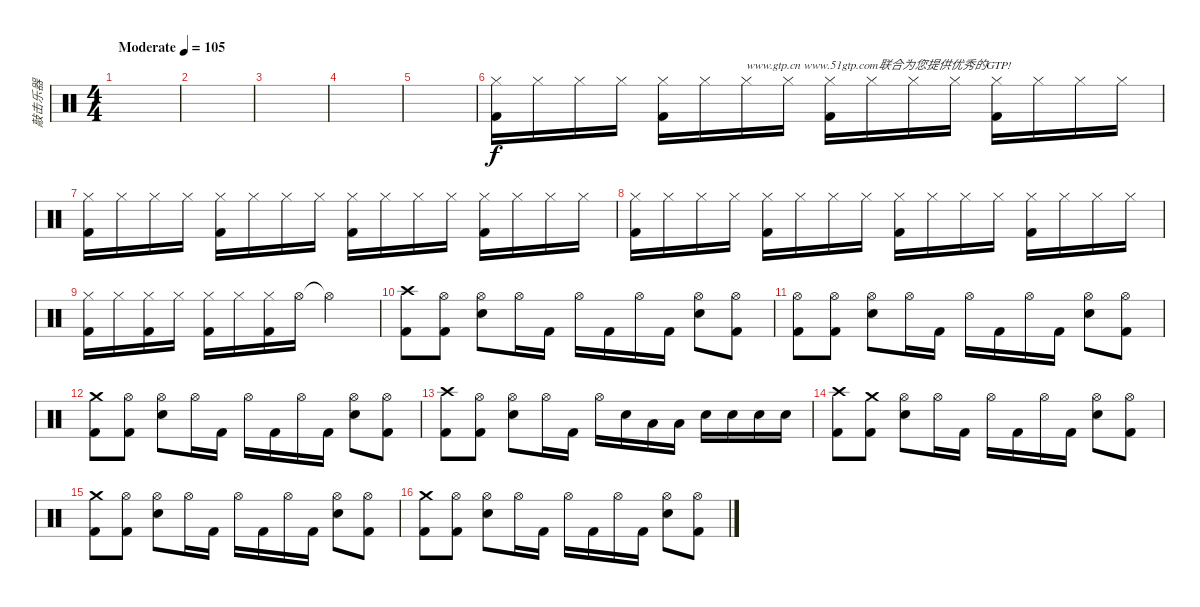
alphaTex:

\track ("敲击乐器" "敲击乐器") {instrument percussion}
\staff {score}
\articulation defaults
\ts (4 4)
\tempo (105 "Moderate")
\clef neutral
\ks c
|
|
|
|
|
("Hi-Hat (closed)" "Kick (hit) 2").16 "Hi-Hat (closed)".16 "Hi-Hat (closed)".16 "Hi-Hat (closed)".16 ("Hi-Hat (closed)" "Kick (hit) 2").16 "Hi-Hat (closed)".16 "Hi-Hat (closed)".16{txt "www.gtp.cn www.51gtp.com联合为您提供优秀的GTP!"} "Hi-Hat (closed)".16 ("Hi-Hat (closed)" "Kick (hit) 2").16 "Hi-Hat (closed)".16 "Hi-Hat (closed)".16 "Hi-Hat (closed)".16 ("Hi-Hat (closed)" "Kick (hit) 2").16 "Hi-Hat (closed)".16 "Hi-Hat (closed)".16 "Hi-Hat (closed)".16 |
("Hi-Hat (closed)" "Kick (hit) 2").16 "Hi-Hat (closed)".16 "Hi-Hat (closed)".16 "Hi-Hat (closed)".16 ("Hi-Hat (closed)" "Kick (hit) 2").16 "Hi-Hat (closed)".16 "Hi-Hat (closed)".16 "Hi-Hat (closed)".16 ("Hi-Hat (closed)" "Kick (hit) 2").16 "Hi-Hat (closed)".16 "Hi-Hat (closed)".16 "Hi-Hat (closed)".16 ("Hi-Hat (closed)" "Kick (hit) 2").16 "Hi-Hat (closed)".16 "Hi-Hat (closed)".16 "Hi-Hat (closed)".16 |
("Hi-Hat (closed)" "Kick (hit) 2").16 "Hi-Hat (closed)".16 "Hi-Hat (closed)".16 "Hi-Hat (closed)".16 ("Hi-Hat (closed)" "Kick (hit) 2").16 "Hi-Hat (closed)".16 "Hi-Hat (closed)".16 "Hi-Hat (closed)".16 ("Hi-Hat (closed)" "Kick (hit) 2").16 "Hi-Hat (closed)".16 "Hi-Hat (closed)".16 "Hi-Hat (closed)".16 ("Hi-Hat (closed)" "Kick (hit) 2").16 "Hi-Hat (closed)".16 "Hi-Hat (closed)".16 "Hi-Hat (closed)".16 |
("Hi-Hat (closed)" "Kick (hit) 2").16 "Hi-Hat (closed)".16 ("Hi-Hat (closed)" "Kick (hit) 2").16 "Hi-Hat (closed)".16 ("Hi-Hat (closed)" "Kick (hit) 2").16 "Hi-Hat (closed)".16 ("Hi-Hat (closed)" "Kick (hit) 2").16 "Hi-Hat (open)".16 "Hi-Hat (open)"{t}.2 |
("Crash high (hit)" "Kick (hit) 2").8 ("Hi-Hat (open)" "Kick (hit) 2").8 ("Hi-Hat (open)" "Electric Snare (hit)").8 "Hi-Hat (open)".16 "Kick (hit) 2".16 "Hi-Hat (open)".16 "Kick (hit) 2".16 "Hi-Hat (open)".16 "Kick (hit) 2".16 ("Hi-Hat (open)" "Electric Snare (hit)").8 ("Hi-Hat (open)" "Kick (hit) 2").8 |
("Hi-Hat (open)" "Kick (hit) 2").8 ("Hi-Hat (open)" "Kick (hit) 2").8 ("Hi-Hat (open)" "Electric Snare (hit)").8 "Hi-Hat (open)".16 "Kick (hit) 2".16 "Hi-Hat (open)".16 "Kick (hit) 2".16 "Hi-Hat (open)".16 "Kick (hit) 2".16 ("Hi-Hat (open)" "Electric Snare (hit)").8 ("Hi-Hat (open)" "Kick (hit) 2").8 |
("Crash medium (hit)" "Kick (hit) 2").8 ("Hi-Hat (open)" "Kick (hit) 2").8 ("Hi-Hat (open)" "Electric Snare (hit)").8 "Hi-Hat (open)".16 "Kick (hit) 2".16 "Hi-Hat (open)".16 "Kick (hit) 2".16 "Hi-Hat (open)".16 "Kick (hit) 2".16 ("Hi-Hat (open)" "Electric Snare (hit)").8 ("Hi-Hat (open)" "Kick (hit) 2").8 |
("Crash high (hit)" "Kick (hit) 2").8 ("Hi-Hat (open)" "Kick (hit) 2").8 ("Hi-Hat (open)" "Electric Snare (hit)").8 "Hi-Hat (open)".16 "Kick (hit) 2".16 "Hi-Hat (open)".16 "Electric Snare (hit)".16 "Low Tom (hit)".16 "Low Tom (hit)".16 "Electric Snare (hit)".16 "Electric Snare (hit)".16 "Electric Snare (hit)".16 "Electric Snare (hit)".16 |
("Crash high (hit)" "Kick (hit) 2").8 ("Crash medium (hit)" "Kick (hit) 2").8 ("Hi-Hat (open)" "Electric Snare (hit)").8 "Hi-Hat (open)".16 "Kick (hit) 2".16 "Hi-Hat (open)".16 "Kick (hit) 2".16 "Hi-Hat (open)".16 "Kick (hit) 2".16 ("Hi-Hat (open)" "Electric Snare (hit)").8 ("Hi-Hat (open)" "Kick (hit) 2").8 |
("Crash medium (hit)" "Kick (hit) 2").8 ("Hi-Hat (open)" "Kick (hit) 2").8 ("Hi-Hat (open)" "Electric Snare (hit)").8 "Hi-Hat (open)".16 "Kick (hit) 2".16 "Hi-Hat (open)".16 "Kick (hit) 2".16 "Hi-Hat (open)".16 "Kick (hit) 2".16 ("Hi-Hat (open)" "Electric Snare (hit)").8 ("Hi-Hat (open)" "Kick (hit) 2").8 |
("Crash medium (hit)" "Kick (hit) 2").8 ("Hi-Hat (open)" "Kick (hit) 2").8 ("Hi-Hat (open)" "Electric Snare (hit)").8 "Hi-Hat (open)".16 "Kick (hit) 2".16 "Hi-Hat (open)".16 "Kick (hit) 2".16 "Hi-Hat (open)".16 "Kick (hit) 2".16 ("Hi-Hat (open)" "Electric Snare (hit)").8 ("Hi-Hat (open)" "Kick (hit) 2").8
